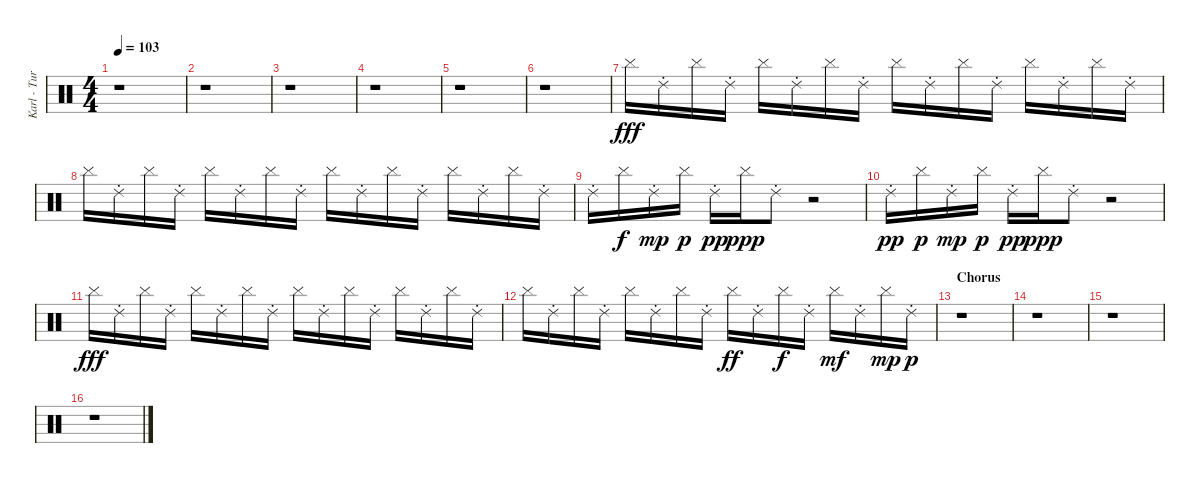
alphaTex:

\track ("Karl - Turntables" "Karl - Tur") {instrument percussion}
\staff {score}
\articulation defaults
\ts (4 4)
\tempo 103
\clef neutral
\ks c
r.1{dy ppp} |
r.1 |
r.1 |
r.1 |
r.1 |
r.1 |
"Cymbal (hit)".16{dy fff} "Ride (choke) 2".16 "Cymbal (hit)".16 "Ride (choke) 2".16 "Cymbal (hit)".16 "Ride (choke) 2".16 "Cymbal (hit)".16 "Ride (choke) 2".16 "Cymbal (hit)".16 "Ride (choke) 2".16 "Cymbal (hit)".16 "Ride (choke) 2".16 "Cymbal (hit)".16 "Ride (choke) 2".16 "Cymbal (hit)".16 "Ride (choke) 2".16 |
"Cymbal (hit)".16 "Ride (choke) 2".16 "Cymbal (hit)".16 "Ride (choke) 2".16 "Cymbal (hit)".16 "Ride (choke) 2".16 "Cymbal (hit)".16 "Ride (choke) 2".16 "Cymbal (hit)".16 "Ride (choke) 2".16 "Cymbal (hit)".16 "Ride (choke) 2".16 "Cymbal (hit)".16 "Ride (choke) 2".16 "Cymbal (hit)".16 "Ride (choke) 2".16 |
"Ride (choke) 2".16 "Cymbal (hit)".16{dy f} "Ride (choke) 2".16{dy mp} "Cymbal (hit)".16{dy p} "Ride (choke) 2".16{dy pp} "Cymbal (hit)".16{dy ppp} "Ride (choke) 2".8 r.2 |
"Ride (choke) 2".16{dy pp} "Cymbal (hit)".16{dy p} "Ride (choke) 2".16{dy mp} "Cymbal (hit)".16{dy p} "Ride (choke) 2".16{dy pp} "Cymbal (hit)".16{dy ppp} "Ride (choke) 2".8 r.2 |
"Cymbal (hit)".16{dy fff} "Ride (choke) 2".16 "Cymbal (hit)".16 "Ride (choke) 2".16 "Cymbal (hit)".16 "Ride (choke) 2".16 "Cymbal (hit)".16 "Ride (choke) 2".16 "Cymbal (hit)".16 "Ride (choke) 2".16 "Cymbal (hit)".16 "Ride (choke) 2".16 "Cymbal (hit)".16 "Ride (choke) 2".16 "Cymbal (hit)".16 "Ride (choke) 2".16 |
"Cymbal (hit)".16 "Ride (choke) 2".16 "Cymbal (hit)".16 "Ride (choke) 2".16 "Cymbal (hit)".16 "Ride (choke) 2".16 "Cymbal (hit)".16 "Ride (choke) 2".16 "Cymbal (hit)".16{dy ff} "Ride (choke) 2".16 "Cymbal (hit)".16{dy f} "Ride (choke) 2".16 "Cymbal (hit)".16{dy mf} "Ride (choke) 2".16 "Cymbal (hit)".16{dy mp} "Ride (choke) 2".16{dy p} |
\section ("" "Chorus")
r.1 |
r.1 |
r.1 |
r.1
